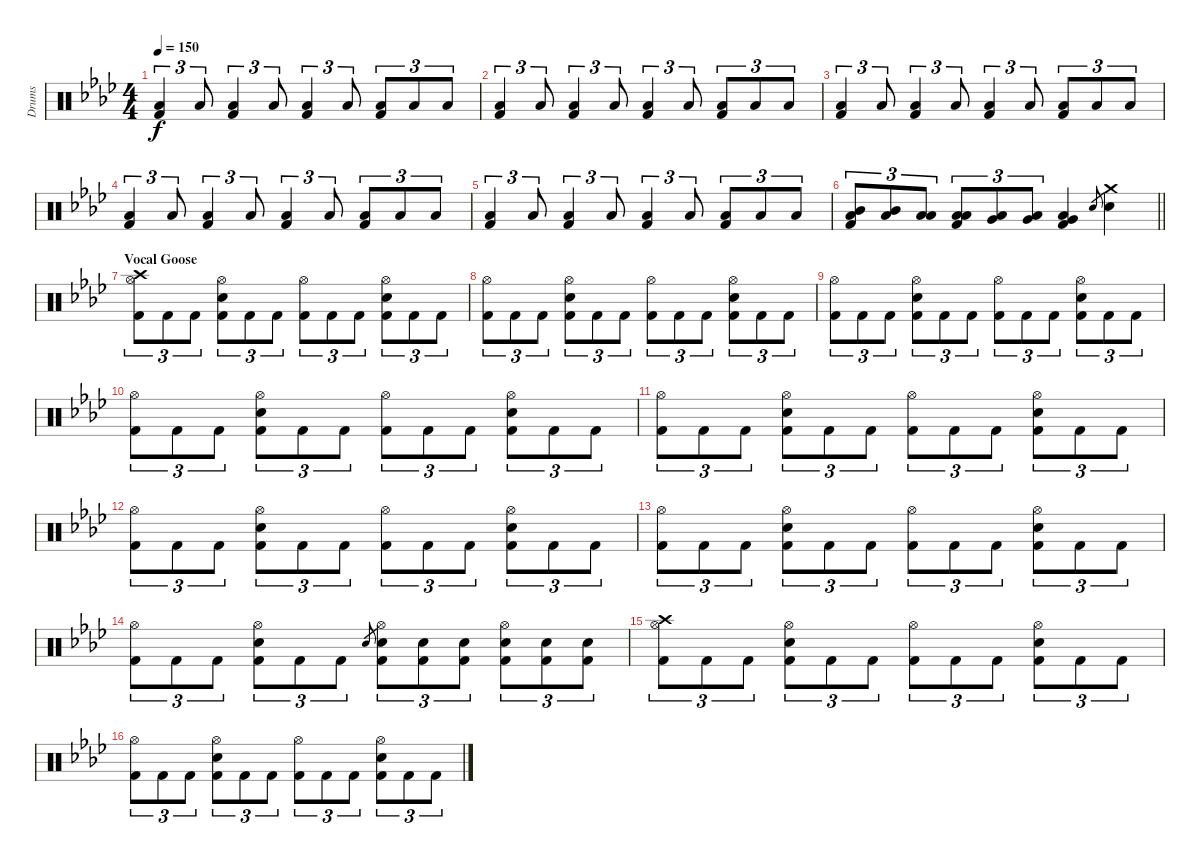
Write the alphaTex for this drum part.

\track ("Drums" "Drums") {instrument percussion}
\staff {score}
\articulation defaults
\ts (4 4)
\tempo 150
\clef neutral
\ks fminor
("Low Floor Tom (hit)" "Kick (hit) 2").4{tu (3 2) dy f} "Low Floor Tom (hit)".8{tu (3 2)} ("Low Floor Tom (hit)" "Kick (hit) 2").4{tu (3 2)} "Low Floor Tom (hit)".8{tu (3 2)} ("Low Floor Tom (hit)" "Kick (hit) 2").4{tu (3 2)} "Low Floor Tom (hit)".8{tu (3 2)} ("Low Floor Tom (hit)" "Kick (hit) 2").8{tu (3 2)} "Low Floor Tom (hit)".8{tu (3 2)} "Low Floor Tom (hit)".8{tu (3 2)} |
("Low Floor Tom (hit)" "Kick (hit) 2").4{tu (3 2)} "Low Floor Tom (hit)".8{tu (3 2)} ("Low Floor Tom (hit)" "Kick (hit) 2").4{tu (3 2)} "Low Floor Tom (hit)".8{tu (3 2)} ("Low Floor Tom (hit)" "Kick (hit) 2").4{tu (3 2)} "Low Floor Tom (hit)".8{tu (3 2)} ("Low Floor Tom (hit)" "Kick (hit) 2").8{tu (3 2)} "Low Floor Tom (hit)".8{tu (3 2)} "Low Floor Tom (hit)".8{tu (3 2)} |
("Low Floor Tom (hit)" "Kick (hit) 2").4{tu (3 2)} "Low Floor Tom (hit)".8{tu (3 2)} ("Low Floor Tom (hit)" "Kick (hit) 2").4{tu (3 2)} "Low Floor Tom (hit)".8{tu (3 2)} ("Low Floor Tom (hit)" "Kick (hit) 2").4{tu (3 2)} "Low Floor Tom (hit)".8{tu (3 2)} ("Low Floor Tom (hit)" "Kick (hit) 2").8{tu (3 2)} "Low Floor Tom (hit)".8{tu (3 2)} "Low Floor Tom (hit)".8{tu (3 2)} |
("Low Floor Tom (hit)" "Kick (hit) 2").4{tu (3 2)} "Low Floor Tom (hit)".8{tu (3 2)} ("Low Floor Tom (hit)" "Kick (hit) 2").4{tu (3 2)} "Low Floor Tom (hit)".8{tu (3 2)} ("Low Floor Tom (hit)" "Kick (hit) 2").4{tu (3 2)} "Low Floor Tom (hit)".8{tu (3 2)} ("Low Floor Tom (hit)" "Kick (hit) 2").8{tu (3 2)} "Low Floor Tom (hit)".8{tu (3 2)} "Low Floor Tom (hit)".8{tu (3 2)} |
("Low Floor Tom (hit)" "Kick (hit) 2").4{tu (3 2)} "Low Floor Tom (hit)".8{tu (3 2)} ("Low Floor Tom (hit)" "Kick (hit) 2").4{tu (3 2)} "Low Floor Tom (hit)".8{tu (3 2)} ("Low Floor Tom (hit)" "Kick (hit) 2").4{tu (3 2)} "Low Floor Tom (hit)".8{tu (3 2)} ("Low Floor Tom (hit)" "Kick (hit) 2").8{tu (3 2)} "Low Floor Tom (hit)".8{tu (3 2)} "Low Floor Tom (hit)".8{tu (3 2)} |
\barLineRight lightlight
("Mid Tom (hit)" "Low Floor Tom (hit)" "Kick (hit) 2").8{tu (3 2)} ("Mid Tom (hit)" "Low Floor Tom (hit)").8{tu (3 2)} ("Low Tom (hit)" "Low Floor Tom (hit)").8{tu (3 2)} ("Low Tom (hit)" "Low Floor Tom (hit)" "Kick (hit) 2").8{tu (3 2)} ("Very Low Tom (hit)" "Low Floor Tom (hit)").8{tu (3 2)} ("Very Low Tom (hit)" "Low Floor Tom (hit)").8{tu (3 2)} ("Very Low Tom (hit)" "Low Floor Tom (hit)" "Kick (hit) 2").4 "Snare (hit) 2".8{gr} ("Crash medium (hit)" "Snare (hit) 2").4 |
\section ("" "Vocal Goose")
("Crash high (hit)" "Hi-Hat (open)" "Kick (hit) 2").8{tu (3 2)} "Kick (hit) 2".8{tu (3 2)} "Kick (hit) 2".8{tu (3 2)} ("Hi-Hat (open)" "Snare (hit) 2" "Kick (hit) 2").8{tu (3 2)} "Kick (hit) 2".8{tu (3 2)} "Kick (hit) 2".8{tu (3 2)} ("Hi-Hat (open)" "Kick (hit) 2").8{tu (3 2)} "Kick (hit) 2".8{tu (3 2)} "Kick (hit) 2".8{tu (3 2)} ("Hi-Hat (open)" "Snare (hit) 2" "Kick (hit) 2").8{tu (3 2)} "Kick (hit) 2".8{tu (3 2)} "Kick (hit) 2".8{tu (3 2)} |
("Hi-Hat (open)" "Kick (hit) 2").8{tu (3 2)} "Kick (hit) 2".8{tu (3 2)} "Kick (hit) 2".8{tu (3 2)} ("Hi-Hat (open)" "Snare (hit) 2" "Kick (hit) 2").8{tu (3 2)} "Kick (hit) 2".8{tu (3 2)} "Kick (hit) 2".8{tu (3 2)} ("Hi-Hat (open)" "Kick (hit) 2").8{tu (3 2)} "Kick (hit) 2".8{tu (3 2)} "Kick (hit) 2".8{tu (3 2)} ("Hi-Hat (open)" "Snare (hit) 2" "Kick (hit) 2").8{tu (3 2)} "Kick (hit) 2".8{tu (3 2)} "Kick (hit) 2".8{tu (3 2)} |
("Hi-Hat (open)" "Kick (hit) 2").8{tu (3 2)} "Kick (hit) 2".8{tu (3 2)} "Kick (hit) 2".8{tu (3 2)} ("Hi-Hat (open)" "Snare (hit) 2" "Kick (hit) 2").8{tu (3 2)} "Kick (hit) 2".8{tu (3 2)} "Kick (hit) 2".8{tu (3 2)} ("Hi-Hat (open)" "Kick (hit) 2").8{tu (3 2)} "Kick (hit) 2".8{tu (3 2)} "Kick (hit) 2".8{tu (3 2)} ("Hi-Hat (open)" "Snare (hit) 2" "Kick (hit) 2").8{tu (3 2)} "Kick (hit) 2".8{tu (3 2)} "Kick (hit) 2".8{tu (3 2)} |
("Hi-Hat (open)" "Kick (hit) 2").8{tu (3 2)} "Kick (hit) 2".8{tu (3 2)} "Kick (hit) 2".8{tu (3 2)} ("Hi-Hat (open)" "Snare (hit) 2" "Kick (hit) 2").8{tu (3 2)} "Kick (hit) 2".8{tu (3 2)} "Kick (hit) 2".8{tu (3 2)} ("Hi-Hat (open)" "Kick (hit) 2").8{tu (3 2)} "Kick (hit) 2".8{tu (3 2)} "Kick (hit) 2".8{tu (3 2)} ("Hi-Hat (open)" "Snare (hit) 2" "Kick (hit) 2").8{tu (3 2)} "Kick (hit) 2".8{tu (3 2)} "Kick (hit) 2".8{tu (3 2)} |
("Hi-Hat (open)" "Kick (hit) 2").8{tu (3 2)} "Kick (hit) 2".8{tu (3 2)} "Kick (hit) 2".8{tu (3 2)} ("Hi-Hat (open)" "Snare (hit) 2" "Kick (hit) 2").8{tu (3 2)} "Kick (hit) 2".8{tu (3 2)} "Kick (hit) 2".8{tu (3 2)} ("Hi-Hat (open)" "Kick (hit) 2").8{tu (3 2)} "Kick (hit) 2".8{tu (3 2)} "Kick (hit) 2".8{tu (3 2)} ("Hi-Hat (open)" "Snare (hit) 2" "Kick (hit) 2").8{tu (3 2)} "Kick (hit) 2".8{tu (3 2)} "Kick (hit) 2".8{tu (3 2)} |
("Hi-Hat (open)" "Kick (hit) 2").8{tu (3 2)} "Kick (hit) 2".8{tu (3 2)} "Kick (hit) 2".8{tu (3 2)} ("Hi-Hat (open)" "Snare (hit) 2" "Kick (hit) 2").8{tu (3 2)} "Kick (hit) 2".8{tu (3 2)} "Kick (hit) 2".8{tu (3 2)} ("Hi-Hat (open)" "Kick (hit) 2").8{tu (3 2)} "Kick (hit) 2".8{tu (3 2)} "Kick (hit) 2".8{tu (3 2)} ("Hi-Hat (open)" "Snare (hit) 2" "Kick (hit) 2").8{tu (3 2)} "Kick (hit) 2".8{tu (3 2)} "Kick (hit) 2".8{tu (3 2)} |
("Hi-Hat (open)" "Kick (hit) 2").8{tu (3 2)} "Kick (hit) 2".8{tu (3 2)} "Kick (hit) 2".8{tu (3 2)} ("Hi-Hat (open)" "Snare (hit) 2" "Kick (hit) 2").8{tu (3 2)} "Kick (hit) 2".8{tu (3 2)} "Kick (hit) 2".8{tu (3 2)} ("Hi-Hat (open)" "Kick (hit) 2").8{tu (3 2)} "Kick (hit) 2".8{tu (3 2)} "Kick (hit) 2".8{tu (3 2)} ("Hi-Hat (open)" "Snare (hit) 2" "Kick (hit) 2").8{tu (3 2)} "Kick (hit) 2".8{tu (3 2)} "Kick (hit) 2".8{tu (3 2)} |
("Hi-Hat (open)" "Kick (hit) 2").8{tu (3 2)} "Kick (hit) 2".8{tu (3 2)} "Kick (hit) 2".8{tu (3 2)} ("Hi-Hat (open)" "Snare (hit) 2" "Kick (hit) 2").8{tu (3 2)} "Kick (hit) 2".8{tu (3 2)} "Kick (hit) 2".8{tu (3 2)} "Snare (hit) 2".8{gr} ("Hi-Hat (open)" "Snare (hit) 2" "Kick (hit) 2").8{tu (3 2)} ("Snare (hit) 2" "Kick (hit) 2").8{tu (3 2)} ("Snare (hit) 2" "Kick (hit) 2").8{tu (3 2)} ("Hi-Hat (open)" "Snare (hit) 2" "Kick (hit) 2").8{tu (3 2)} ("Snare (hit) 2" "Kick (hit) 2").8{tu (3 2)} ("Snare (hit) 2" "Kick (hit) 2").8{tu (3 2)} |
("Crash high (hit)" "Hi-Hat (open)" "Kick (hit) 2").8{tu (3 2)} "Kick (hit) 2".8{tu (3 2)} "Kick (hit) 2".8{tu (3 2)} ("Hi-Hat (open)" "Snare (hit) 2" "Kick (hit) 2").8{tu (3 2)} "Kick (hit) 2".8{tu (3 2)} "Kick (hit) 2".8{tu (3 2)} ("Hi-Hat (open)" "Kick (hit) 2").8{tu (3 2)} "Kick (hit) 2".8{tu (3 2)} "Kick (hit) 2".8{tu (3 2)} ("Hi-Hat (open)" "Snare (hit) 2" "Kick (hit) 2").8{tu (3 2)} "Kick (hit) 2".8{tu (3 2)} "Kick (hit) 2".8{tu (3 2)} |
("Hi-Hat (open)" "Kick (hit) 2").8{tu (3 2)} "Kick (hit) 2".8{tu (3 2)} "Kick (hit) 2".8{tu (3 2)} ("Hi-Hat (open)" "Snare (hit) 2" "Kick (hit) 2").8{tu (3 2)} "Kick (hit) 2".8{tu (3 2)} "Kick (hit) 2".8{tu (3 2)} ("Hi-Hat (open)" "Kick (hit) 2").8{tu (3 2)} "Kick (hit) 2".8{tu (3 2)} "Kick (hit) 2".8{tu (3 2)} ("Hi-Hat (open)" "Snare (hit) 2" "Kick (hit) 2").8{tu (3 2)} "Kick (hit) 2".8{tu (3 2)} "Kick (hit) 2".8{tu (3 2)}
